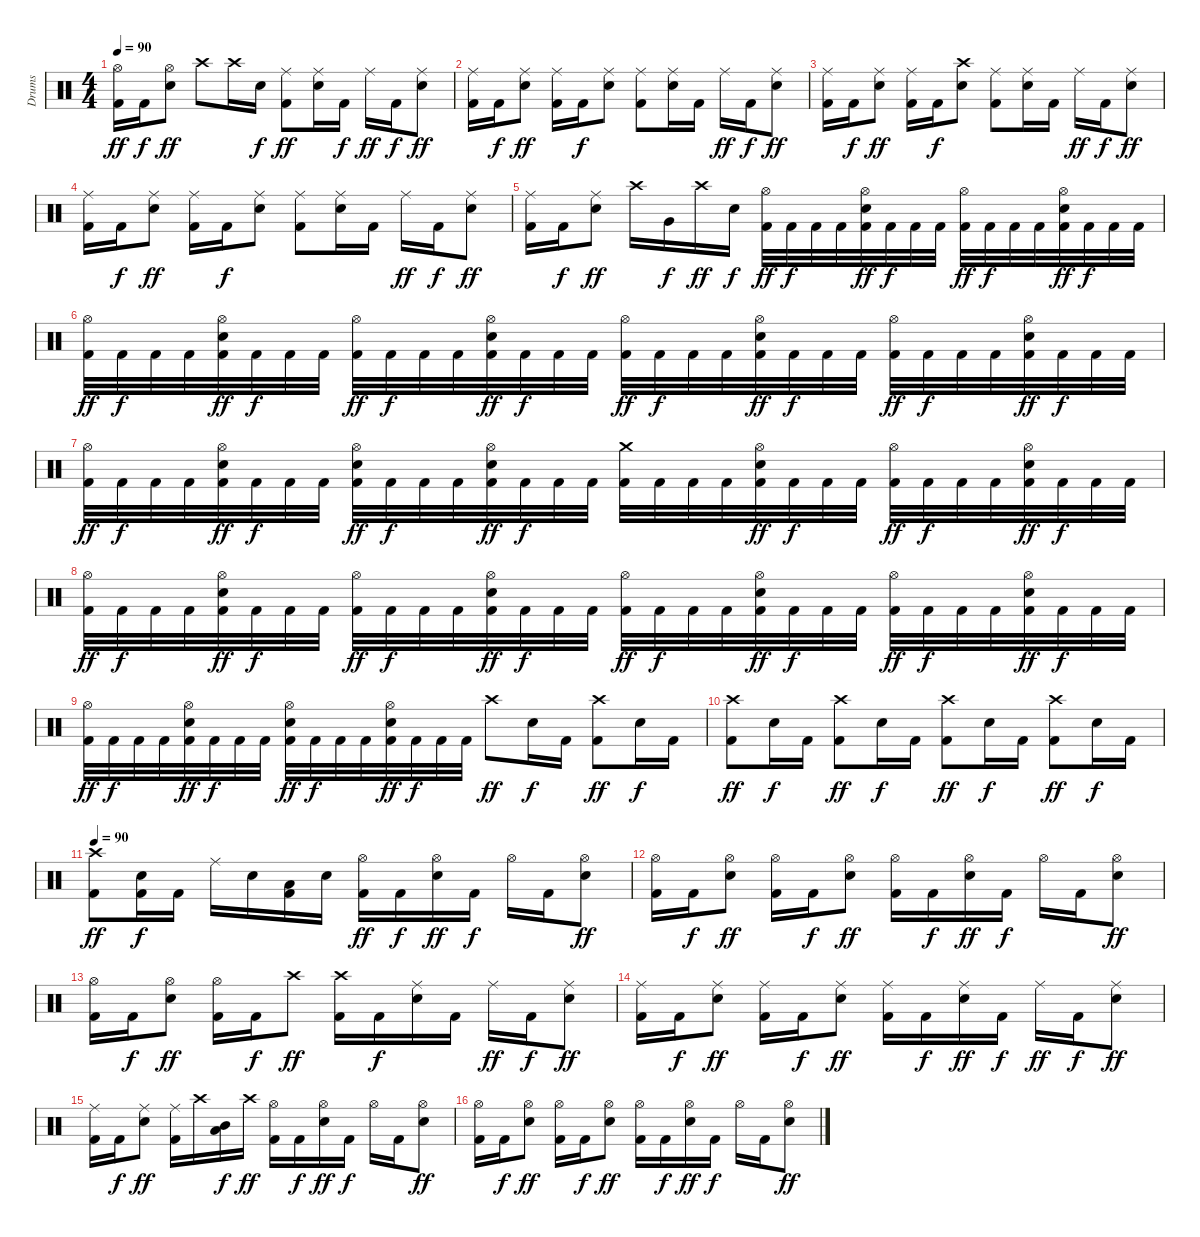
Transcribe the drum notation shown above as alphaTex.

\track ("Drums" "Drums") {instrument percussion}
\staff {score}
\articulation defaults
\ts (4 4)
\tempo 90
\clef neutral
\ks c
("Hi-Hat (open)" "Kick (hit) 2").16{dy ff} "Kick (hit) 2".16{dy f} ("Hi-Hat (open)" "Electric Snare (hit)").8{dy ff} "Crash high (hit)".8 "Crash high (hit)".16 "Electric Snare (hit)".16{dy f} ("Ride (middle)" "Kick (hit) 2").8{dy ff} ("Ride (middle)" "Electric Snare (hit)").16 "Kick (hit) 2".16{dy f} "Ride (middle)".16{dy ff} "Kick (hit) 2".16{dy f} ("Ride (middle)" "Electric Snare (hit)").8{dy ff} |
("Ride (middle)" "Kick (hit) 2").16 "Kick (hit) 2".16{dy f} ("Ride (middle)" "Electric Snare (hit)").8{dy ff} ("Ride (middle)" "Kick (hit) 2").16 "Kick (hit) 2".16{dy f} ("Ride (middle)" "Electric Snare (hit)").8 ("Ride (middle)" "Kick (hit) 2").8 ("Ride (middle)" "Electric Snare (hit)").16 "Kick (hit) 2".16 "Ride (middle)".16{dy ff} "Kick (hit) 2".16{dy f} ("Ride (middle)" "Electric Snare (hit)").8{dy ff} |
("Ride (middle)" "Kick (hit) 2").16 "Kick (hit) 2".16{dy f} ("Ride (middle)" "Electric Snare (hit)").8{dy ff} ("Ride (middle)" "Kick (hit) 2").16 "Kick (hit) 2".16{dy f} ("Crash high (hit)" "Electric Snare (hit)").8 ("Ride (middle)" "Kick (hit) 2").8 ("Ride (middle)" "Electric Snare (hit)").16 "Kick (hit) 2".16 "Ride (middle)".16{dy ff} "Kick (hit) 2".16{dy f} ("Ride (middle)" "Electric Snare (hit)").8{dy ff} |
("Ride (middle)" "Kick (hit) 2").16 "Kick (hit) 2".16{dy f} ("Ride (middle)" "Electric Snare (hit)").8{dy ff} ("Ride (middle)" "Kick (hit) 2").16 "Kick (hit) 2".16{dy f} ("Ride (middle)" "Electric Snare (hit)").8 ("Ride (middle)" "Kick (hit) 2").8 ("Ride (middle)" "Electric Snare (hit)").16 "Kick (hit) 2".16 "Ride (middle)".16{dy ff} "Kick (hit) 2".16{dy f} ("Ride (middle)" "Electric Snare (hit)").8{dy ff} |
("Ride (middle)" "Kick (hit) 2").16 "Kick (hit) 2".16{dy f} ("Ride (middle)" "Electric Snare (hit)").8{dy ff} "Crash high (hit)".16 "Very Low Tom (hit)".16{dy f} "Crash high (hit)".16{dy ff} "Electric Snare (hit)".16{dy f} ("Hi-Hat (open)" "Kick (hit) 2").32{dy ff} "Kick (hit) 2".32{dy f} "Kick (hit) 2".32 "Kick (hit) 2".32 ("Hi-Hat (open)" "Electric Snare (hit)" "Kick (hit) 2").32{dy ff} "Kick (hit) 2".32{dy f} "Kick (hit) 2".32 "Kick (hit) 2".32 ("Hi-Hat (open)" "Kick (hit) 2").32{dy ff} "Kick (hit) 2".32{dy f} "Kick (hit) 2".32 "Kick (hit) 2".32 ("Hi-Hat (open)" "Electric Snare (hit)" "Kick (hit) 2").32{dy ff} "Kick (hit) 2".32{dy f} "Kick (hit) 2".32 "Kick (hit) 2".32 |
("Hi-Hat (open)" "Kick (hit) 2").32{dy ff} "Kick (hit) 2".32{dy f} "Kick (hit) 2".32 "Kick (hit) 2".32 ("Hi-Hat (open)" "Electric Snare (hit)" "Kick (hit) 2").32{dy ff} "Kick (hit) 2".32{dy f} "Kick (hit) 2".32 "Kick (hit) 2".32 ("Hi-Hat (open)" "Kick (hit) 2").32{dy ff} "Kick (hit) 2".32{dy f} "Kick (hit) 2".32 "Kick (hit) 2".32 ("Hi-Hat (open)" "Electric Snare (hit)" "Kick (hit) 2").32{dy ff} "Kick (hit) 2".32{dy f} "Kick (hit) 2".32 "Kick (hit) 2".32 ("Hi-Hat (open)" "Kick (hit) 2").32{dy ff} "Kick (hit) 2".32{dy f} "Kick (hit) 2".32 "Kick (hit) 2".32 ("Hi-Hat (open)" "Electric Snare (hit)" "Kick (hit) 2").32{dy ff} "Kick (hit) 2".32{dy f} "Kick (hit) 2".32 "Kick (hit) 2".32 ("Hi-Hat (open)" "Kick (hit) 2").32{dy ff} "Kick (hit) 2".32{dy f} "Kick (hit) 2".32 "Kick (hit) 2".32 ("Hi-Hat (open)" "Electric Snare (hit)" "Kick (hit) 2").32{dy ff} "Kick (hit) 2".32{dy f} "Kick (hit) 2".32 "Kick (hit) 2".32 |
("Hi-Hat (open)" "Kick (hit) 2").32{dy ff} "Kick (hit) 2".32{dy f} "Kick (hit) 2".32 "Kick (hit) 2".32 ("Hi-Hat (open)" "Electric Snare (hit)" "Kick (hit) 2").32{dy ff} "Kick (hit) 2".32{dy f} "Kick (hit) 2".32 "Kick (hit) 2".32 ("Hi-Hat (open)" "Electric Snare (hit)" "Kick (hit) 2").32{dy ff} "Kick (hit) 2".32{dy f} "Kick (hit) 2".32 "Kick (hit) 2".32 ("Hi-Hat (open)" "Electric Snare (hit)" "Kick (hit) 2").32{dy ff} "Kick (hit) 2".32{dy f} "Kick (hit) 2".32 "Kick (hit) 2".32 ("Crash medium (hit)" "Kick (hit) 2").32 "Kick (hit) 2".32 "Kick (hit) 2".32 "Kick (hit) 2".32 ("Hi-Hat (open)" "Electric Snare (hit)" "Kick (hit) 2").32{dy ff} "Kick (hit) 2".32{dy f} "Kick (hit) 2".32 "Kick (hit) 2".32 ("Hi-Hat (open)" "Kick (hit) 2").32{dy ff} "Kick (hit) 2".32{dy f} "Kick (hit) 2".32 "Kick (hit) 2".32 ("Hi-Hat (open)" "Electric Snare (hit)" "Kick (hit) 2").32{dy ff} "Kick (hit) 2".32{dy f} "Kick (hit) 2".32 "Kick (hit) 2".32 |
("Hi-Hat (open)" "Kick (hit) 2").32{dy ff} "Kick (hit) 2".32{dy f} "Kick (hit) 2".32 "Kick (hit) 2".32 ("Hi-Hat (open)" "Electric Snare (hit)" "Kick (hit) 2").32{dy ff} "Kick (hit) 2".32{dy f} "Kick (hit) 2".32 "Kick (hit) 2".32 ("Hi-Hat (open)" "Kick (hit) 2").32{dy ff} "Kick (hit) 2".32{dy f} "Kick (hit) 2".32 "Kick (hit) 2".32 ("Hi-Hat (open)" "Electric Snare (hit)" "Kick (hit) 2").32{dy ff} "Kick (hit) 2".32{dy f} "Kick (hit) 2".32 "Kick (hit) 2".32 ("Hi-Hat (open)" "Kick (hit) 2").32{dy ff} "Kick (hit) 2".32{dy f} "Kick (hit) 2".32 "Kick (hit) 2".32 ("Hi-Hat (open)" "Electric Snare (hit)" "Kick (hit) 2").32{dy ff} "Kick (hit) 2".32{dy f} "Kick (hit) 2".32 "Kick (hit) 2".32 ("Hi-Hat (open)" "Kick (hit) 2").32{dy ff} "Kick (hit) 2".32{dy f} "Kick (hit) 2".32 "Kick (hit) 2".32 ("Hi-Hat (open)" "Electric Snare (hit)" "Kick (hit) 2").32{dy ff} "Kick (hit) 2".32{dy f} "Kick (hit) 2".32 "Kick (hit) 2".32 |
("Hi-Hat (open)" "Kick (hit) 2").32{dy ff} "Kick (hit) 2".32{dy f} "Kick (hit) 2".32 "Kick (hit) 2".32 ("Hi-Hat (open)" "Electric Snare (hit)" "Kick (hit) 2").32{dy ff} "Kick (hit) 2".32{dy f} "Kick (hit) 2".32 "Kick (hit) 2".32 ("Hi-Hat (open)" "Electric Snare (hit)" "Kick (hit) 2").32{dy ff} "Kick (hit) 2".32{dy f} "Kick (hit) 2".32 "Kick (hit) 2".32 ("Hi-Hat (open)" "Electric Snare (hit)" "Kick (hit) 2").32{dy ff} "Kick (hit) 2".32{dy f} "Kick (hit) 2".32 "Kick (hit) 2".32 "Crash high (hit)".8{dy ff} "Electric Snare (hit)".16{dy f} "Kick (hit) 2".16 ("Crash high (hit)" "Kick (hit) 2").8{dy ff} "Electric Snare (hit)".16{dy f} "Kick (hit) 2".16 |
("Crash high (hit)" "Kick (hit) 2").8{dy ff} "Electric Snare (hit)".16{dy f} "Kick (hit) 2".16 ("Crash high (hit)" "Kick (hit) 2").8{dy ff} "Electric Snare (hit)".16{dy f} "Kick (hit) 2".16 ("Crash high (hit)" "Kick (hit) 2").8{dy ff} "Electric Snare (hit)".16{dy f} "Kick (hit) 2".16 ("Crash high (hit)" "Kick (hit) 2").8{dy ff} "Electric Snare (hit)".16{dy f} "Kick (hit) 2".16 |
\tempo 90
("Crash high (hit)" "Kick (hit) 2").8{dy ff} ("Electric Snare (hit)" "Kick (hit) 2").16{dy f} "Kick (hit) 2".16 "Ride (middle)".16 "Electric Snare (hit)".16 ("Low Tom (hit)" "Kick (hit) 2").16 "Electric Snare (hit)".16 ("Hi-Hat (open)" "Kick (hit) 2").16{dy ff} "Kick (hit) 2".16{dy f} ("Hi-Hat (open)" "Electric Snare (hit)").16{dy ff} "Kick (hit) 2".16{dy f} "Hi-Hat (open)".16 "Kick (hit) 2".16 ("Hi-Hat (open)" "Electric Snare (hit)").8{dy ff} |
("Hi-Hat (open)" "Kick (hit) 2").16 "Kick (hit) 2".16{dy f} ("Hi-Hat (open)" "Electric Snare (hit)").8{dy ff} ("Hi-Hat (open)" "Kick (hit) 2").16 "Kick (hit) 2".16{dy f} ("Hi-Hat (open)" "Electric Snare (hit)").8{dy ff} ("Hi-Hat (open)" "Kick (hit) 2").16 "Kick (hit) 2".16{dy f} ("Hi-Hat (open)" "Electric Snare (hit)").16{dy ff} "Kick (hit) 2".16{dy f} "Hi-Hat (open)".16 "Kick (hit) 2".16 ("Hi-Hat (open)" "Electric Snare (hit)").8{dy ff} |
("Hi-Hat (open)" "Kick (hit) 2").16 "Kick (hit) 2".16{dy f} ("Hi-Hat (open)" "Electric Snare (hit)").8{dy ff} ("Hi-Hat (open)" "Kick (hit) 2").16 "Kick (hit) 2".16{dy f} "Crash high (hit)".8{dy ff} ("Crash high (hit)" "Kick (hit) 2").16 "Kick (hit) 2".16{dy f} ("Ride (middle)" "Electric Snare (hit)").16 "Kick (hit) 2".16 "Ride (middle)".16{dy ff} "Kick (hit) 2".16{dy f} ("Ride (middle)" "Electric Snare (hit)").8{dy ff} |
("Ride (middle)" "Kick (hit) 2").16 "Kick (hit) 2".16{dy f} ("Ride (middle)" "Electric Snare (hit)").8{dy ff} ("Ride (middle)" "Kick (hit) 2").16 "Kick (hit) 2".16{dy f} ("Ride (middle)" "Electric Snare (hit)").8{dy ff} ("Ride (middle)" "Kick (hit) 2").16 "Kick (hit) 2".16{dy f} ("Ride (middle)" "Electric Snare (hit)").16{dy ff} "Kick (hit) 2".16{dy f} "Ride (middle)".16{dy ff} "Kick (hit) 2".16{dy f} ("Ride (middle)" "Electric Snare (hit)").8{dy ff} |
("Ride (middle)" "Kick (hit) 2").16 "Kick (hit) 2".16{dy f} ("Ride (middle)" "Electric Snare (hit)").8{dy ff} ("Ride (middle)" "Kick (hit) 2").16 "Crash high (hit)".16 ("Mid Tom (hit)" "Low Tom (hit)").16{dy f} "Crash high (hit)".16{dy ff} ("Hi-Hat (open)" "Kick (hit) 2").16 "Kick (hit) 2".16{dy f} ("Hi-Hat (open)" "Electric Snare (hit)").16{dy ff} "Kick (hit) 2".16{dy f} "Hi-Hat (open)".16 "Kick (hit) 2".16 ("Hi-Hat (open)" "Electric Snare (hit)").8{dy ff} |
("Hi-Hat (open)" "Kick (hit) 2").16 "Kick (hit) 2".16{dy f} ("Hi-Hat (open)" "Electric Snare (hit)").8{dy ff} ("Hi-Hat (open)" "Kick (hit) 2").16 "Kick (hit) 2".16{dy f} ("Hi-Hat (open)" "Electric Snare (hit)").8{dy ff} ("Hi-Hat (open)" "Kick (hit) 2").16 "Kick (hit) 2".16{dy f} ("Hi-Hat (open)" "Electric Snare (hit)").16{dy ff} "Kick (hit) 2".16{dy f} "Hi-Hat (open)".16 "Kick (hit) 2".16 ("Hi-Hat (open)" "Electric Snare (hit)").8{dy ff}
